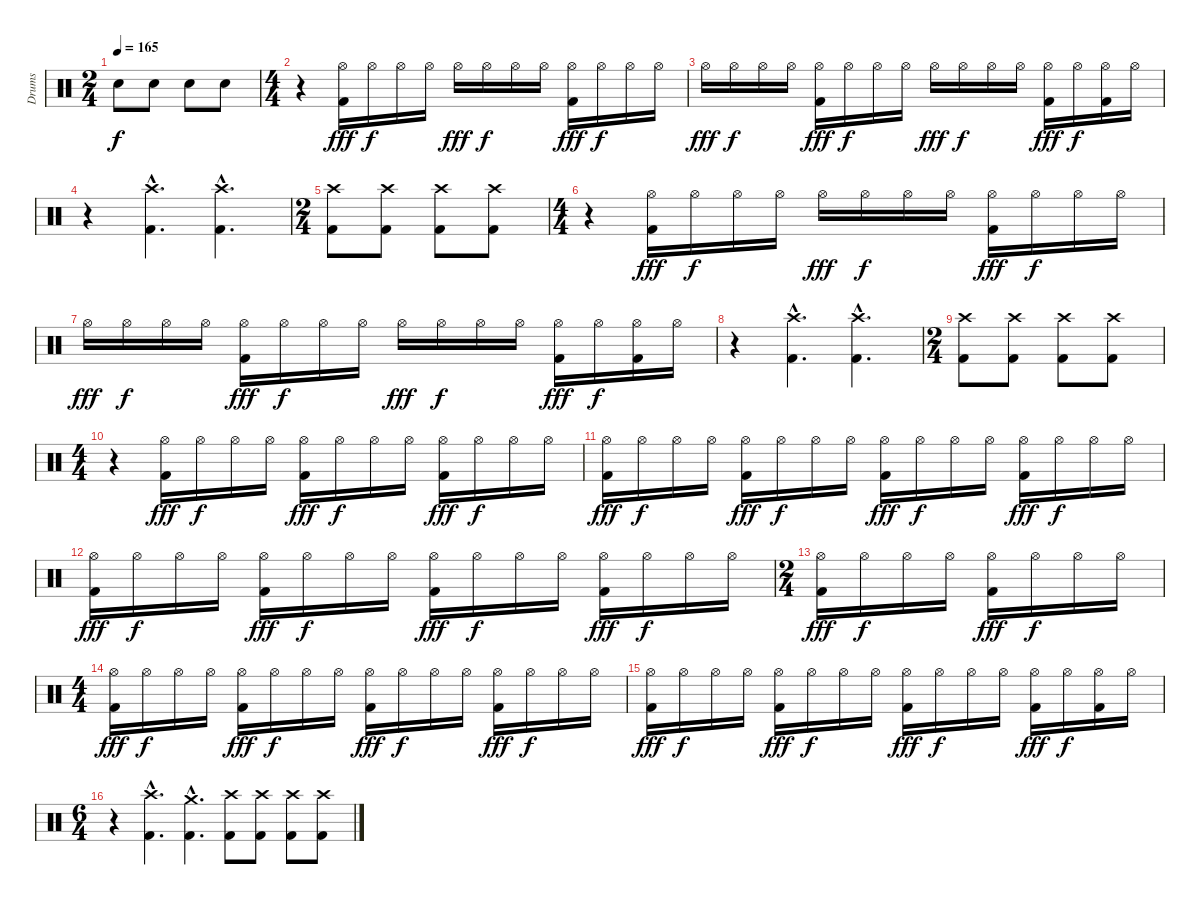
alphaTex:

\track ("Drums" "Drums") {instrument percussion}
\staff {score}
\articulation defaults
\ts (2 4)
\tempo 165
\clef neutral
\ks c "Electric Snare (hit)".8{dy f} "Electric Snare (hit)".8 "Electric Snare (hit)".8 "Electric Snare (hit)".8
|
\ts (4 4)
r.4 ("Hi-Hat (open)" "Kick (hit) 2").16{dy fff} "Hi-Hat (open)".16{dy f} "Hi-Hat (open)".16 "Hi-Hat (open)".16 "Hi-Hat (open)".16{dy fff} "Hi-Hat (open)".16{dy f} "Hi-Hat (open)".16 "Hi-Hat (open)".16 ("Hi-Hat (open)" "Kick (hit) 2").16{dy fff} "Hi-Hat (open)".16{dy f} "Hi-Hat (open)".16 "Hi-Hat (open)".16 |
"Hi-Hat (open)".16{dy fff} "Hi-Hat (open)".16{dy f} "Hi-Hat (open)".16 "Hi-Hat (open)".16 ("Hi-Hat (open)" "Kick (hit) 2").16{dy fff} "Hi-Hat (open)".16{dy f} "Hi-Hat (open)".16 "Hi-Hat (open)".16 "Hi-Hat (open)".16{dy fff} "Hi-Hat (open)".16{dy f} "Hi-Hat (open)".16 "Hi-Hat (open)".16 ("Hi-Hat (open)" "Kick (hit) 2").16{dy fff} "Hi-Hat (open)".16{dy f} ("Hi-Hat (open)" "Kick (hit) 2").16 "Hi-Hat (open)".16 |
r.4 ("Crash high (hit)"{hac} "Kick (hit) 2"{hac}).4{d} ("Crash high (hit)"{hac} "Kick (hit) 2"{hac}).4{d} |
\ts (2 4)
("Crash high (hit)" "Kick (hit) 2").8 ("Crash high (hit)" "Kick (hit) 2").8 ("Crash high (hit)" "Kick (hit) 2").8 ("Crash high (hit)" "Kick (hit) 2").8 |
\ts (4 4)
r.4 ("Hi-Hat (open)" "Kick (hit) 2").16{dy fff} "Hi-Hat (open)".16{dy f} "Hi-Hat (open)".16 "Hi-Hat (open)".16 "Hi-Hat (open)".16{dy fff} "Hi-Hat (open)".16{dy f} "Hi-Hat (open)".16 "Hi-Hat (open)".16 ("Hi-Hat (open)" "Kick (hit) 2").16{dy fff} "Hi-Hat (open)".16{dy f} "Hi-Hat (open)".16 "Hi-Hat (open)".16 |
"Hi-Hat (open)".16{dy fff} "Hi-Hat (open)".16{dy f} "Hi-Hat (open)".16 "Hi-Hat (open)".16 ("Hi-Hat (open)" "Kick (hit) 2").16{dy fff} "Hi-Hat (open)".16{dy f} "Hi-Hat (open)".16 "Hi-Hat (open)".16 "Hi-Hat (open)".16{dy fff} "Hi-Hat (open)".16{dy f} "Hi-Hat (open)".16 "Hi-Hat (open)".16 ("Hi-Hat (open)" "Kick (hit) 2").16{dy fff} "Hi-Hat (open)".16{dy f} ("Hi-Hat (open)" "Kick (hit) 2").16 "Hi-Hat (open)".16 |
r.4 ("Crash high (hit)"{hac} "Kick (hit) 2"{hac}).4{d} ("Crash high (hit)"{hac} "Kick (hit) 2"{hac}).4{d} |
\ts (2 4)
("Crash high (hit)" "Kick (hit) 2").8 ("Crash high (hit)" "Kick (hit) 2").8 ("Crash high (hit)" "Kick (hit) 2").8 ("Crash high (hit)" "Kick (hit) 2").8 |
\ts (4 4)
r.4 ("Hi-Hat (open)" "Kick (hit) 2").16{dy fff} "Hi-Hat (open)".16{dy f} "Hi-Hat (open)".16 "Hi-Hat (open)".16 ("Hi-Hat (open)" "Kick (hit) 2").16{dy fff} "Hi-Hat (open)".16{dy f} "Hi-Hat (open)".16 "Hi-Hat (open)".16 ("Hi-Hat (open)" "Kick (hit) 2").16{dy fff} "Hi-Hat (open)".16{dy f} "Hi-Hat (open)".16 "Hi-Hat (open)".16 |
("Hi-Hat (open)" "Kick (hit) 2").16{dy fff} "Hi-Hat (open)".16{dy f} "Hi-Hat (open)".16 "Hi-Hat (open)".16 ("Hi-Hat (open)" "Kick (hit) 2").16{dy fff} "Hi-Hat (open)".16{dy f} "Hi-Hat (open)".16 "Hi-Hat (open)".16 ("Hi-Hat (open)" "Kick (hit) 2").16{dy fff} "Hi-Hat (open)".16{dy f} "Hi-Hat (open)".16 "Hi-Hat (open)".16 ("Hi-Hat (open)" "Kick (hit) 2").16{dy fff} "Hi-Hat (open)".16{dy f} "Hi-Hat (open)".16 "Hi-Hat (open)".16 |
("Hi-Hat (open)" "Kick (hit) 2").16{dy fff} "Hi-Hat (open)".16{dy f} "Hi-Hat (open)".16 "Hi-Hat (open)".16 ("Hi-Hat (open)" "Kick (hit) 2").16{dy fff} "Hi-Hat (open)".16{dy f} "Hi-Hat (open)".16 "Hi-Hat (open)".16 ("Hi-Hat (open)" "Kick (hit) 2").16{dy fff} "Hi-Hat (open)".16{dy f} "Hi-Hat (open)".16 "Hi-Hat (open)".16 ("Hi-Hat (open)" "Kick (hit) 2").16{dy fff} "Hi-Hat (open)".16{dy f} "Hi-Hat (open)".16 "Hi-Hat (open)".16 |
\ts (2 4)
("Hi-Hat (open)" "Kick (hit) 2").16{dy fff} "Hi-Hat (open)".16{dy f} "Hi-Hat (open)".16 "Hi-Hat (open)".16 ("Hi-Hat (open)" "Kick (hit) 2").16{dy fff} "Hi-Hat (open)".16{dy f} "Hi-Hat (open)".16 "Hi-Hat (open)".16 |
\ts (4 4)
("Hi-Hat (open)" "Kick (hit) 2").16{dy fff} "Hi-Hat (open)".16{dy f} "Hi-Hat (open)".16 "Hi-Hat (open)".16 ("Hi-Hat (open)" "Kick (hit) 2").16{dy fff} "Hi-Hat (open)".16{dy f} "Hi-Hat (open)".16 "Hi-Hat (open)".16 ("Hi-Hat (open)" "Kick (hit) 2").16{dy fff} "Hi-Hat (open)".16{dy f} "Hi-Hat (open)".16 "Hi-Hat (open)".16 ("Hi-Hat (open)" "Kick (hit) 2").16{dy fff} "Hi-Hat (open)".16{dy f} "Hi-Hat (open)".16 "Hi-Hat (open)".16 |
("Hi-Hat (open)" "Kick (hit) 2").16{dy fff} "Hi-Hat (open)".16{dy f} "Hi-Hat (open)".16 "Hi-Hat (open)".16 ("Hi-Hat (open)" "Kick (hit) 2").16{dy fff} "Hi-Hat (open)".16{dy f} "Hi-Hat (open)".16 "Hi-Hat (open)".16 ("Hi-Hat (open)" "Kick (hit) 2").16{dy fff} "Hi-Hat (open)".16{dy f} "Hi-Hat (open)".16 "Hi-Hat (open)".16 ("Hi-Hat (open)" "Kick (hit) 2").16{dy fff} "Hi-Hat (open)".16{dy f} ("Hi-Hat (open)" "Kick (hit) 2").16 "Hi-Hat (open)".16 |
\ts (6 4)
r.4 ("Crash high (hit)"{hac} "Kick (hit) 2"{hac}).4{d} ("Crash medium (hit)"{hac} "Kick (hit) 2"{hac}).4{d} ("Crash high (hit)" "Kick (hit) 2").8 ("Crash high (hit)" "Kick (hit) 2").8 ("Crash high (hit)" "Kick (hit) 2").8 ("Crash high (hit)" "Kick (hit) 2").8
